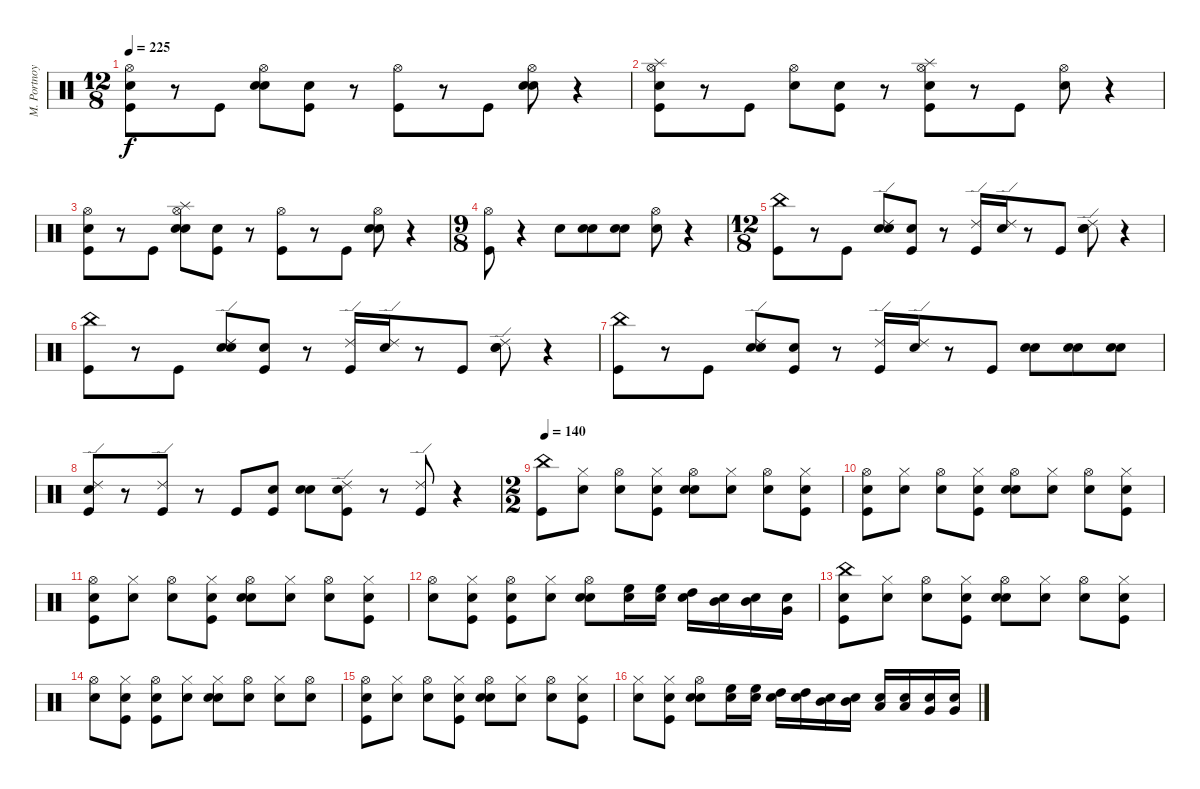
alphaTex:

\track ("M. Portnoy" "M. Portnoy") {instrument percussion}
\staff {score}
\articulation defaults
\ts (12 8)
\tempo 225
\clef neutral
\ks c
("Snare (hit)" "Kick (hit)" "Hi-Hat (open)").8{dy f} r.8 "Kick (hit)".8 ("Snare (hit)" "Snare (hit) 2" "Hi-Hat (open)").8 ("Snare (hit)" "Kick (hit)").8 r.8 ("Kick (hit)" "Hi-Hat (open)").8 r.8 "Kick (hit)".8 ("Snare (hit)" "Snare (hit) 2" "Hi-Hat (open)").8 r.4 |
("Kick (hit)" "Snare (hit) 2" "Hi-Hat (open)" "Splash (hit)").8 r.8 "Kick (hit)".8 ("Snare (hit)" "Hi-Hat (open)").8 ("Snare (hit)" "Kick (hit)").8 r.8 ("Kick (hit)" "Snare (hit) 2" "Hi-Hat (open)" "Splash (hit)").8 r.8 "Kick (hit)".8 ("Snare (hit)" "Hi-Hat (open)").8 r.4 |
("Kick (hit)" "Snare (hit) 2" "Hi-Hat (open)").8 r.8 "Kick (hit)".8 ("Snare (hit)" "Snare (hit) 2" "Hi-Hat (open)" "Splash (hit)").8 ("Snare (hit)" "Kick (hit)").8 r.8 ("Kick (hit)" "Hi-Hat (open)").8 r.8 "Kick (hit)".8 ("Snare (hit)" "Snare (hit) 2" "Hi-Hat (open)").8 r.4 |
\ts (9 8)
("Kick (hit)" "Hi-Hat (open)").8 r.4 "Snare (hit) 2".8 ("Snare (hit)" "Snare (hit) 2").8 ("Snare (hit)" "Snare (hit) 2").8 ("Snare (hit)" "Hi-Hat (open)").8 r.4 |
\ts (12 8)
("Kick (hit)" "China (hit)").8 r.8 "Kick (hit)".8 ("Snare (hit)" "Snare (hit) 2" "Ride (edge) 2").8 ("Snare (hit)" "Kick (hit)").8 r.8 ("Kick (hit)" "Ride (edge) 2").16 ("Snare (hit)" "Ride (edge) 2").16 r.8 "Kick (hit)".8 ("Snare (hit)" "Snare (hit) 2" "Ride (edge) 2").8 r.4 |
("Kick (hit)" "China (hit)").8 r.8 "Kick (hit)".8 ("Snare (hit)" "Snare (hit) 2" "Ride (edge) 2").8 ("Snare (hit)" "Kick (hit)").8 r.8 ("Kick (hit)" "Ride (edge) 2").16 ("Snare (hit)" "Ride (edge) 2").16 r.8 "Kick (hit)".8 ("Snare (hit)" "Snare (hit) 2" "Ride (edge) 2").8 r.4 |
("Kick (hit)" "China (hit)").8 r.8 "Kick (hit)".8 ("Snare (hit)" "Snare (hit) 2" "Ride (edge) 2").8 ("Snare (hit)" "Kick (hit)").8 r.8 ("Kick (hit)" "Ride (edge) 2").16 ("Snare (hit)" "Ride (edge) 2").16 r.8 "Kick (hit)".8 ("Snare (hit)" "Snare (hit) 2").8 ("Snare (hit)" "Snare (hit) 2").8 ("Snare (hit)" "Snare (hit) 2").8 |
("Snare (hit)" "Kick (hit)" "Ride (edge) 2").8 r.8 ("Kick (hit)" "Ride (edge) 2").8 r.8 "Kick (hit)".8 ("Snare (hit)" "Kick (hit)").8 ("Snare (hit)" "Snare (hit) 2").8 ("Snare (hit)" "Kick (hit)" "Ride (edge) 2").8 r.8 ("Kick (hit)" "Ride (edge) 2").8 r.4 |
\ts (2 2)
\tempo 140
("Kick (hit)" "China (hit)").8 ("Snare (hit)" "Hi-Hat (closed)").8 ("Snare (hit)" "Hi-Hat (open)").8 ("Snare (hit)" "Kick (hit)" "Hi-Hat (closed)").8 ("Snare (hit)" "Snare (hit) 2" "Hi-Hat (open)").8 ("Snare (hit)" "Hi-Hat (closed)").8 ("Snare (hit)" "Hi-Hat (open)").8 ("Snare (hit)" "Kick (hit)" "Hi-Hat (closed)").8 |
("Snare (hit)" "Kick (hit)" "Hi-Hat (open)").8 ("Snare (hit)" "Hi-Hat (closed)").8 ("Snare (hit)" "Hi-Hat (open)").8 ("Snare (hit)" "Kick (hit)" "Hi-Hat (closed)").8 ("Snare (hit)" "Snare (hit) 2" "Hi-Hat (open)").8 ("Snare (hit)" "Hi-Hat (closed)").8 ("Snare (hit)" "Hi-Hat (open)").8 ("Snare (hit)" "Kick (hit)" "Hi-Hat (closed)").8 |
("Snare (hit)" "Kick (hit)" "Hi-Hat (open)").8 ("Snare (hit)" "Hi-Hat (closed)").8 ("Snare (hit)" "Hi-Hat (open)").8 ("Snare (hit)" "Kick (hit)" "Hi-Hat (closed)").8 ("Snare (hit)" "Snare (hit) 2" "Hi-Hat (open)").8 ("Snare (hit)" "Hi-Hat (closed)").8 ("Snare (hit)" "Hi-Hat (open)").8 ("Snare (hit)" "Kick (hit)" "Hi-Hat (closed)").8 |
("Snare (hit)" "Hi-Hat (open)").8 ("Snare (hit)" "Kick (hit)" "Hi-Hat (closed)").8 ("Snare (hit)" "Kick (hit)" "Hi-Hat (open)").8 ("Snare (hit)" "Hi-Hat (closed)").8 ("Snare (hit)" "Snare (hit) 2" "Hi-Hat (open)").8 ("Snare (hit)" "High Floor Tom (hit)").16 ("Snare (hit)" "High Floor Tom (hit)").16 ("Snare (hit)" "High Tom (hit)").16 ("Snare (hit)" "Mid Tom (hit)").16 ("Snare (hit)" "Mid Tom (hit)").16 ("Snare (hit)" "Very Low Tom (hit)").16 |
("Snare (hit)" "Kick (hit)" "China (hit)").8 ("Snare (hit)" "Hi-Hat (closed)").8 ("Snare (hit)" "Hi-Hat (open)").8 ("Snare (hit)" "Kick (hit)" "Hi-Hat (closed)").8 ("Snare (hit)" "Snare (hit) 2" "Hi-Hat (open)").8 ("Snare (hit)" "Hi-Hat (closed)").8 ("Snare (hit)" "Hi-Hat (open)").8 ("Snare (hit)" "Kick (hit)" "Hi-Hat (closed)").8 |
("Snare (hit)" "Hi-Hat (open)").8 ("Snare (hit)" "Kick (hit)" "Hi-Hat (closed)").8 ("Snare (hit)" "Kick (hit)" "Hi-Hat (open)").8 ("Snare (hit)" "Hi-Hat (closed)").8 ("Snare (hit)" "Snare (hit) 2" "Hi-Hat (closed)").8 ("Snare (hit)" "Hi-Hat (open)").8 ("Snare (hit)" "Hi-Hat (closed)").8 ("Snare (hit)" "Hi-Hat (open)").8 |
("Snare (hit)" "Kick (hit)" "Hi-Hat (open)").8 ("Snare (hit)" "Hi-Hat (closed)").8 ("Snare (hit)" "Hi-Hat (open)").8 ("Snare (hit)" "Kick (hit)" "Hi-Hat (closed)").8 ("Snare (hit)" "Snare (hit) 2" "Hi-Hat (open)").8 ("Snare (hit)" "Hi-Hat (closed)").8 ("Snare (hit)" "Hi-Hat (open)").8 ("Snare (hit)" "Kick (hit)" "Hi-Hat (closed)").8 |
("Snare (hit)" "Hi-Hat (closed)").8 ("Snare (hit)" "Kick (hit)" "Hi-Hat (closed)").8 ("Snare (hit)" "Snare (hit) 2" "Hi-Hat (open)").8 ("Snare (hit)" "High Floor Tom (hit)").16 ("Snare (hit)" "High Floor Tom (hit)").16 ("Snare (hit)" "High Tom (hit)").16 ("Snare (hit)" "High Tom (hit)").16 ("Snare (hit)" "Mid Tom (hit)").16 ("Snare (hit)" "Mid Tom (hit)").16 ("Snare (hit)" "Low Tom (hit)").16 ("Snare (hit)" "Low Tom (hit)").16 ("Snare (hit)" "Very Low Tom (hit)").16 ("Snare (hit)" "Very Low Tom (hit)").16
